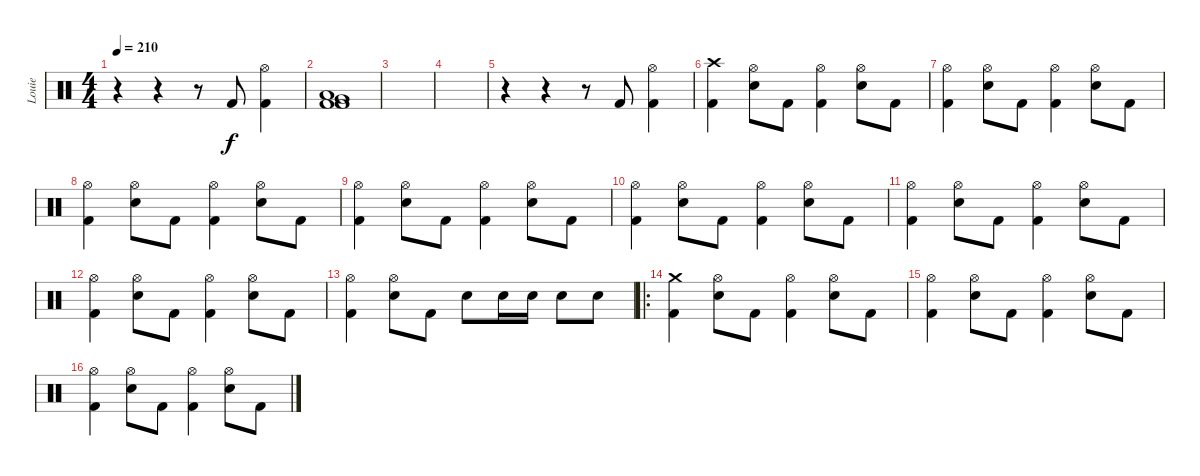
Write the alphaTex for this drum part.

\track ("Louie" "Louie") {instrument percussion}
\staff {score}
\articulation defaults
\ts (4 4)
\tempo 210
\clef neutral
\ks c
r.4{dy f} r.4 r.8 "Kick (hit) 2".8 ("Hi-Hat (open)" "Kick (hit) 2").4 |
("Low Tom (hit)" "Very Low Tom (hit)" "Kick (hit) 2" "Kick (hit) 2").1 |
|
|
r.4 r.4 r.8 "Kick (hit) 2".8 ("Hi-Hat (open)" "Kick (hit) 2").4 |
("Crash high (hit)" "Kick (hit) 2").4 ("Hi-Hat (open)" "Snare (hit) 2").8 "Kick (hit) 2".8 ("Hi-Hat (open)" "Kick (hit) 2").4 ("Hi-Hat (open)" "Snare (hit) 2").8 "Kick (hit) 2".8 |
("Hi-Hat (open)" "Kick (hit) 2").4 ("Hi-Hat (open)" "Snare (hit) 2").8 "Kick (hit) 2".8 ("Hi-Hat (open)" "Kick (hit) 2").4 ("Hi-Hat (open)" "Snare (hit) 2").8 "Kick (hit) 2".8 |
("Hi-Hat (open)" "Kick (hit) 2").4 ("Hi-Hat (open)" "Snare (hit) 2").8 "Kick (hit) 2".8 ("Hi-Hat (open)" "Kick (hit) 2").4 ("Hi-Hat (open)" "Snare (hit) 2").8 "Kick (hit) 2".8 |
("Hi-Hat (open)" "Kick (hit) 2").4 ("Hi-Hat (open)" "Snare (hit) 2").8 "Kick (hit) 2".8 ("Hi-Hat (open)" "Kick (hit) 2").4 ("Hi-Hat (open)" "Snare (hit) 2").8 "Kick (hit) 2".8 |
("Hi-Hat (open)" "Kick (hit) 2").4 ("Hi-Hat (open)" "Snare (hit) 2").8 "Kick (hit) 2".8 ("Hi-Hat (open)" "Kick (hit) 2").4 ("Hi-Hat (open)" "Snare (hit) 2").8 "Kick (hit) 2".8 |
("Hi-Hat (open)" "Kick (hit) 2").4 ("Hi-Hat (open)" "Snare (hit) 2").8 "Kick (hit) 2".8 ("Hi-Hat (open)" "Kick (hit) 2").4 ("Hi-Hat (open)" "Snare (hit) 2").8 "Kick (hit) 2".8 |
("Hi-Hat (open)" "Kick (hit) 2").4 ("Hi-Hat (open)" "Snare (hit) 2").8 "Kick (hit) 2".8 ("Hi-Hat (open)" "Kick (hit) 2").4 ("Hi-Hat (open)" "Snare (hit) 2").8 "Kick (hit) 2".8 |
("Hi-Hat (open)" "Kick (hit) 2").4 ("Hi-Hat (open)" "Snare (hit) 2").8 "Kick (hit) 2".8 "Snare (hit) 2".8 "Snare (hit) 2".16 "Snare (hit) 2".16 "Snare (hit) 2".8 "Snare (hit) 2".8 |
\ro
("Crash medium (hit)" "Kick (hit) 2").4 ("Hi-Hat (open)" "Snare (hit) 2").8 "Kick (hit) 2".8 ("Hi-Hat (open)" "Kick (hit) 2").4 ("Hi-Hat (open)" "Snare (hit) 2").8 "Kick (hit) 2".8 |
("Hi-Hat (open)" "Kick (hit) 2").4 ("Hi-Hat (open)" "Snare (hit) 2").8 "Kick (hit) 2".8 ("Hi-Hat (open)" "Kick (hit) 2").4 ("Hi-Hat (open)" "Snare (hit) 2").8 "Kick (hit) 2".8 |
("Hi-Hat (open)" "Kick (hit) 2").4 ("Hi-Hat (open)" "Snare (hit) 2").8 "Kick (hit) 2".8 ("Hi-Hat (open)" "Kick (hit) 2").4 ("Hi-Hat (open)" "Snare (hit) 2").8 "Kick (hit) 2".8
